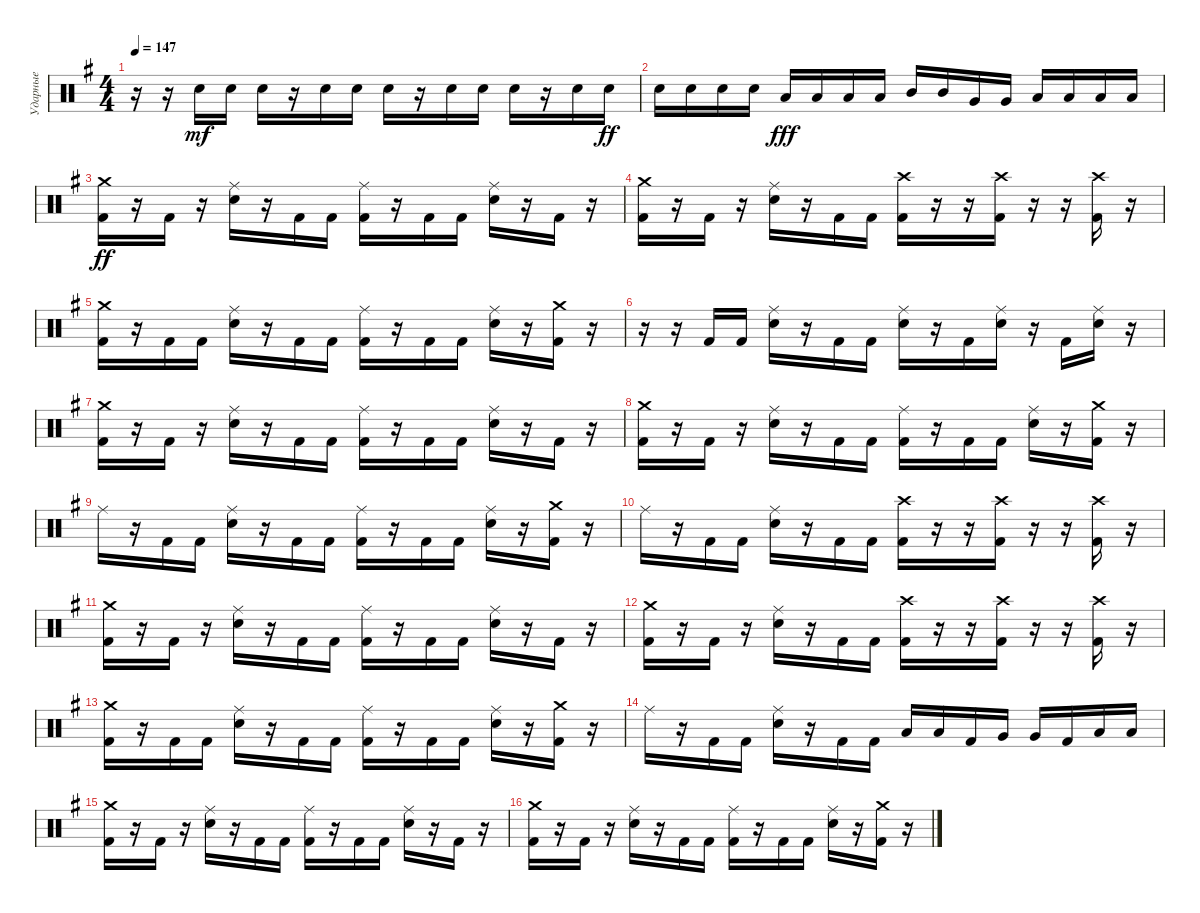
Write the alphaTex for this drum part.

\track ("Ударные" "Ударные") {instrument percussion}
\staff {score}
\articulation defaults
\ts (4 4)
\tempo 147
\clef neutral
\ks eminor
r.16{dy mf} r.16 "Electric Snare (hit)".16 "Electric Snare (hit)".16 "Electric Snare (hit)".16 r.16 "Electric Snare (hit)".16 "Electric Snare (hit)".16 "Electric Snare (hit)".16 r.16 "Electric Snare (hit)".16 "Electric Snare (hit)".16 "Electric Snare (hit)".16 r.16 "Electric Snare (hit)".16 "Electric Snare (hit)".16{dy ff} |
"Electric Snare (hit)".16 "Electric Snare (hit)".16 "Electric Snare (hit)".16 "Electric Snare (hit)".16 "Low Tom (hit)".16{dy fff} "Low Tom (hit)".16 "Low Tom (hit)".16 "Low Tom (hit)".16 "Mid Tom (hit)".16 "Mid Tom (hit)".16 "Very Low Tom (hit)".16 "Very Low Tom (hit)".16 "Low Floor Tom (hit)".16 "Low Floor Tom (hit)".16 "Low Floor Tom (hit)".16 "Low Floor Tom (hit)".16 |
("Crash medium (hit)" "Kick (hit) 2").16{dy ff} r.16 "Kick (hit) 2".16 r.16 ("Ride (middle)" "Electric Snare (hit)").16 r.16 "Kick (hit) 2".16 "Kick (hit) 2".16 ("Ride (middle)" "Kick (hit) 2").16 r.16 "Kick (hit) 2".16 "Kick (hit) 2".16 ("Ride (middle)" "Electric Snare (hit)").16 r.16 "Kick (hit) 2".16 r.16 |
("Crash medium (hit)" "Kick (hit) 2").16 r.16 "Kick (hit) 2".16 r.16 ("Ride (middle)" "Electric Snare (hit)").16 r.16 "Kick (hit) 2".16 "Kick (hit) 2".16 ("Crash high (hit)" "Kick (hit) 2").16 r.16 r.16 ("Crash high (hit)" "Kick (hit) 2").16 r.16 r.16 ("Crash high (hit)" "Kick (hit) 2").16 r.16 |
("Crash medium (hit)" "Kick (hit) 2").16 r.16 "Kick (hit) 2".16 "Kick (hit) 2".16 ("Ride (middle)" "Electric Snare (hit)").16 r.16 "Kick (hit) 2".16 "Kick (hit) 2".16 ("Ride (middle)" "Kick (hit) 2").16 r.16 "Kick (hit) 2".16 "Kick (hit) 2".16 ("Ride (middle)" "Electric Snare (hit)").16 r.16 ("Crash medium (hit)" "Kick (hit) 2").16 r.16 |
r.16 r.16 "Kick (hit) 2".16 "Kick (hit) 2".16 ("Ride (middle)" "Electric Snare (hit)").16 r.16 "Kick (hit) 2".16 "Kick (hit) 2".16 ("Ride (middle)" "Electric Snare (hit)").16 r.16 "Kick (hit) 2".16 ("Ride (middle)" "Electric Snare (hit)").16 r.16 "Kick (hit) 2".16 ("Ride (middle)" "Electric Snare (hit)").16 r.16 |
("Crash medium (hit)" "Kick (hit) 2").16 r.16 "Kick (hit) 2".16 r.16 ("Ride (middle)" "Electric Snare (hit)").16 r.16 "Kick (hit) 2".16 "Kick (hit) 2".16 ("Ride (middle)" "Kick (hit) 2").16 r.16 "Kick (hit) 2".16 "Kick (hit) 2".16 ("Ride (middle)" "Electric Snare (hit)").16 r.16 "Kick (hit) 2".16 r.16 |
("Crash medium (hit)" "Kick (hit) 2").16 r.16 "Kick (hit) 2".16 r.16 ("Ride (middle)" "Electric Snare (hit)").16 r.16 "Kick (hit) 2".16 "Kick (hit) 2".16 ("Ride (middle)" "Kick (hit) 2").16 r.16 "Kick (hit) 2".16 "Kick (hit) 2".16 ("Ride (middle)" "Electric Snare (hit)").16 r.16 ("Crash medium (hit)" "Kick (hit) 2").16 r.16 |
"Ride (middle)".16 r.16 "Kick (hit) 2".16 "Kick (hit) 2".16 ("Ride (middle)" "Electric Snare (hit)").16 r.16 "Kick (hit) 2".16 "Kick (hit) 2".16 ("Ride (middle)" "Kick (hit) 2").16 r.16 "Kick (hit) 2".16 "Kick (hit) 2".16 ("Ride (middle)" "Electric Snare (hit)").16 r.16 ("Crash medium (hit)" "Kick (hit) 2").16 r.16 |
"Ride (middle)".16 r.16 "Kick (hit) 2".16 "Kick (hit) 2".16 ("Ride (middle)" "Electric Snare (hit)").16 r.16 "Kick (hit) 2".16 "Kick (hit) 2".16 ("Crash high (hit)" "Kick (hit) 2").16 r.16 r.16 ("Crash high (hit)" "Kick (hit) 2").16 r.16 r.16 ("Crash high (hit)" "Kick (hit) 2").16 r.16 |
("Crash medium (hit)" "Kick (hit) 2").16 r.16 "Kick (hit) 2".16 r.16 ("Ride (middle)" "Electric Snare (hit)").16 r.16 "Kick (hit) 2".16 "Kick (hit) 2".16 ("Ride (middle)" "Kick (hit) 2").16 r.16 "Kick (hit) 2".16 "Kick (hit) 2".16 ("Ride (middle)" "Electric Snare (hit)").16 r.16 "Kick (hit) 2".16 r.16 |
("Crash medium (hit)" "Kick (hit) 2").16 r.16 "Kick (hit) 2".16 r.16 ("Ride (middle)" "Electric Snare (hit)").16 r.16 "Kick (hit) 2".16 "Kick (hit) 2".16 ("Crash high (hit)" "Kick (hit) 2").16 r.16 r.16 ("Crash high (hit)" "Kick (hit) 2").16 r.16 r.16 ("Crash high (hit)" "Kick (hit) 2").16 r.16 |
("Crash medium (hit)" "Kick (hit) 2").16 r.16 "Kick (hit) 2".16 "Kick (hit) 2".16 ("Ride (middle)" "Electric Snare (hit)").16 r.16 "Kick (hit) 2".16 "Kick (hit) 2".16 ("Ride (middle)" "Kick (hit) 2").16 r.16 "Kick (hit) 2".16 "Kick (hit) 2".16 ("Ride (middle)" "Electric Snare (hit)").16 r.16 ("Crash medium (hit)" "Kick (hit) 2").16 r.16 |
"Ride (middle)".16 r.16 "Kick (hit) 2".16 "Kick (hit) 2".16 ("Ride (middle)" "Electric Snare (hit)").16 r.16 "Kick (hit) 2".16 "Kick (hit) 2".16 "Low Tom (hit)".16 "Low Tom (hit)".16 "Kick (hit) 2".16 "Very Low Tom (hit)".16 "Very Low Tom (hit)".16 "Kick (hit) 2".16 "Low Floor Tom (hit)".16 "Low Floor Tom (hit)".16 |
("Crash medium (hit)" "Kick (hit) 2").16 r.16 "Kick (hit) 2".16 r.16 ("Ride (middle)" "Electric Snare (hit)").16 r.16 "Kick (hit) 2".16 "Kick (hit) 2".16 ("Ride (middle)" "Kick (hit) 2").16 r.16 "Kick (hit) 2".16 "Kick (hit) 2".16 ("Ride (middle)" "Electric Snare (hit)").16 r.16 "Kick (hit) 2".16 r.16 |
("Crash medium (hit)" "Kick (hit) 2").16 r.16 "Kick (hit) 2".16 r.16 ("Ride (middle)" "Electric Snare (hit)").16 r.16 "Kick (hit) 2".16 "Kick (hit) 2".16 ("Ride (middle)" "Kick (hit) 2").16 r.16 "Kick (hit) 2".16 "Kick (hit) 2".16 ("Ride (middle)" "Electric Snare (hit)").16 r.16 ("Crash medium (hit)" "Kick (hit) 2").16 r.16
